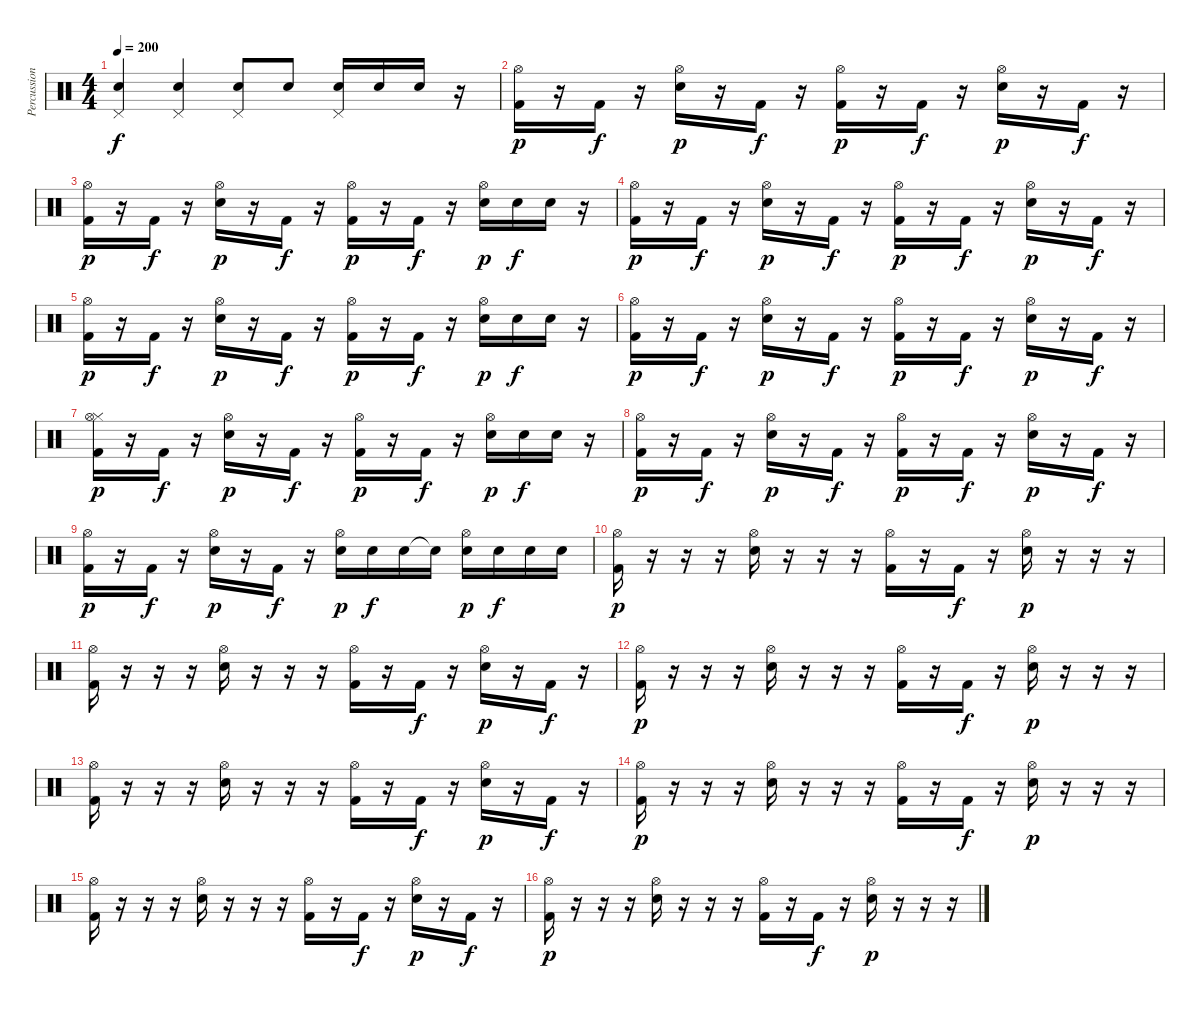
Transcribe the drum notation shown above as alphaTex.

\track ("Percussion" "Percussion") {instrument percussion}
\staff {score}
\articulation defaults
\ts (4 4)
\tempo 200
\clef neutral
\ks c
("Electric Snare (hit)" "Pedal Hi-Hat (hit)").4{dy f} ("Electric Snare (hit)" "Pedal Hi-Hat (hit)").4 ("Electric Snare (hit)" "Pedal Hi-Hat (hit)").8 "Electric Snare (hit)".8 ("Electric Snare (hit)" "Pedal Hi-Hat (hit)").16 "Electric Snare (hit)".16 "Electric Snare (hit)".16 r.16 |
("Kick (hit) 2" "Hi-Hat (open)").16{dy p} r.16 "Kick (hit) 2".16{dy f} r.16 ("Electric Snare (hit)" "Hi-Hat (open)").16{dy p} r.16 "Kick (hit) 2".16{dy f} r.16 ("Kick (hit) 2" "Hi-Hat (open)").16{dy p} r.16 "Kick (hit) 2".16{dy f} r.16 ("Electric Snare (hit)" "Hi-Hat (open)").16{dy p} r.16 "Kick (hit) 2".16{dy f} r.16 |
("Kick (hit) 2" "Hi-Hat (open)").16{dy p} r.16 "Kick (hit) 2".16{dy f} r.16 ("Electric Snare (hit)" "Hi-Hat (open)").16{dy p} r.16 "Kick (hit) 2".16{dy f} r.16 ("Kick (hit) 2" "Hi-Hat (open)").16{dy p} r.16 "Kick (hit) 2".16{dy f} r.16 ("Electric Snare (hit)" "Hi-Hat (open)").16{dy p} "Electric Snare (hit)".16{dy f} "Electric Snare (hit)".16 r.16 |
("Kick (hit) 2" "Hi-Hat (open)").16{dy p} r.16 "Kick (hit) 2".16{dy f} r.16 ("Electric Snare (hit)" "Hi-Hat (open)").16{dy p} r.16 "Kick (hit) 2".16{dy f} r.16 ("Kick (hit) 2" "Hi-Hat (open)").16{dy p} r.16 "Kick (hit) 2".16{dy f} r.16 ("Electric Snare (hit)" "Hi-Hat (open)").16{dy p} r.16 "Kick (hit) 2".16{dy f} r.16 |
("Kick (hit) 2" "Hi-Hat (open)").16{dy p} r.16 "Kick (hit) 2".16{dy f} r.16 ("Electric Snare (hit)" "Hi-Hat (open)").16{dy p} r.16 "Kick (hit) 2".16{dy f} r.16 ("Kick (hit) 2" "Hi-Hat (open)").16{dy p} r.16 "Kick (hit) 2".16{dy f} r.16 ("Electric Snare (hit)" "Hi-Hat (open)").16{dy p} "Electric Snare (hit)".16{dy f} "Electric Snare (hit)".16 r.16 |
("Kick (hit) 2" "Hi-Hat (open)").16{dy p} r.16 "Kick (hit) 2".16{dy f} r.16 ("Electric Snare (hit)" "Hi-Hat (open)").16{dy p} r.16 "Kick (hit) 2".16{dy f} r.16 ("Kick (hit) 2" "Hi-Hat (open)").16{dy p} r.16 "Kick (hit) 2".16{dy f} r.16 ("Electric Snare (hit)" "Hi-Hat (open)").16{dy p} r.16 "Kick (hit) 2".16{dy f} r.16 |
("Kick (hit) 2" "Hi-Hat (closed)" "Hi-Hat (open)").16{dy p} r.16 "Kick (hit) 2".16{dy f} r.16 ("Electric Snare (hit)" "Hi-Hat (open)").16{dy p} r.16 "Kick (hit) 2".16{dy f} r.16 ("Kick (hit) 2" "Hi-Hat (open)").16{dy p} r.16 "Kick (hit) 2".16{dy f} r.16 ("Electric Snare (hit)" "Hi-Hat (open)").16{dy p} "Electric Snare (hit)".16{dy f} "Electric Snare (hit)".16 r.16 |
("Kick (hit) 2" "Hi-Hat (open)").16{dy p} r.16 "Kick (hit) 2".16{dy f} r.16 ("Electric Snare (hit)" "Hi-Hat (open)").16{dy p} r.16 "Kick (hit) 2".16{dy f} r.16 ("Kick (hit) 2" "Hi-Hat (open)").16{dy p} r.16 "Kick (hit) 2".16{dy f} r.16 ("Electric Snare (hit)" "Hi-Hat (open)").16{dy p} r.16 "Kick (hit) 2".16{dy f} r.16 |
("Kick (hit) 2" "Hi-Hat (open)").16{dy p} r.16 "Kick (hit) 2".16{dy f} r.16 ("Electric Snare (hit)" "Hi-Hat (open)").16{dy p} r.16 "Kick (hit) 2".16{dy f} r.16 ("Electric Snare (hit)" "Hi-Hat (open)").16{dy p} "Electric Snare (hit)".16{dy f} "Electric Snare (hit)".16 "Electric Snare (hit)"{t}.16 ("Electric Snare (hit)" "Hi-Hat (open)").16{dy p} "Electric Snare (hit)".16{dy f} "Electric Snare (hit)".16 "Electric Snare (hit)".16 |
("Kick (hit) 2" "Hi-Hat (open)").16{dy p} r.16 r.16 r.16 ("Electric Snare (hit)" "Hi-Hat (open)").16 r.16 r.16 r.16 ("Kick (hit) 2" "Hi-Hat (open)").16 r.16 "Kick (hit) 2".16{dy f} r.16 ("Electric Snare (hit)" "Hi-Hat (open)").16{dy p} r.16 r.16 r.16 |
("Kick (hit) 2" "Hi-Hat (open)").16 r.16 r.16 r.16 ("Electric Snare (hit)" "Hi-Hat (open)").16 r.16 r.16 r.16 ("Kick (hit) 2" "Hi-Hat (open)").16 r.16 "Kick (hit) 2".16{dy f} r.16 ("Electric Snare (hit)" "Hi-Hat (open)").16{dy p} r.16 "Kick (hit) 2".16{dy f} r.16 |
("Kick (hit) 2" "Hi-Hat (open)").16{dy p} r.16 r.16 r.16 ("Electric Snare (hit)" "Hi-Hat (open)").16 r.16 r.16 r.16 ("Kick (hit) 2" "Hi-Hat (open)").16 r.16 "Kick (hit) 2".16{dy f} r.16 ("Electric Snare (hit)" "Hi-Hat (open)").16{dy p} r.16 r.16 r.16 |
("Kick (hit) 2" "Hi-Hat (open)").16 r.16 r.16 r.16 ("Electric Snare (hit)" "Hi-Hat (open)").16 r.16 r.16 r.16 ("Kick (hit) 2" "Hi-Hat (open)").16 r.16 "Kick (hit) 2".16{dy f} r.16 ("Electric Snare (hit)" "Hi-Hat (open)").16{dy p} r.16 "Kick (hit) 2".16{dy f} r.16 |
("Kick (hit) 2" "Hi-Hat (open)").16{dy p} r.16 r.16 r.16 ("Electric Snare (hit)" "Hi-Hat (open)").16 r.16 r.16 r.16 ("Kick (hit) 2" "Hi-Hat (open)").16 r.16 "Kick (hit) 2".16{dy f} r.16 ("Electric Snare (hit)" "Hi-Hat (open)").16{dy p} r.16 r.16 r.16 |
("Kick (hit) 2" "Hi-Hat (open)").16 r.16 r.16 r.16 ("Electric Snare (hit)" "Hi-Hat (open)").16 r.16 r.16 r.16 ("Kick (hit) 2" "Hi-Hat (open)").16 r.16 "Kick (hit) 2".16{dy f} r.16 ("Electric Snare (hit)" "Hi-Hat (open)").16{dy p} r.16 "Kick (hit) 2".16{dy f} r.16 |
("Kick (hit) 2" "Hi-Hat (open)").16{dy p} r.16 r.16 r.16 ("Electric Snare (hit)" "Hi-Hat (open)").16 r.16 r.16 r.16 ("Kick (hit) 2" "Hi-Hat (open)").16 r.16 "Kick (hit) 2".16{dy f} r.16 ("Electric Snare (hit)" "Hi-Hat (open)").16{dy p} r.16 r.16 r.16
